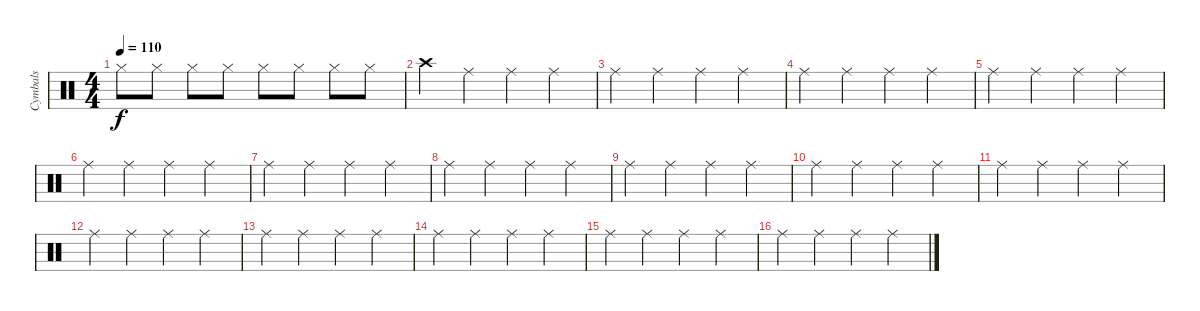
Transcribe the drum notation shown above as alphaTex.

\track ("Cymbals" "Cymbals") {instrument percussion}
\staff {score}
\articulation defaults
\ts (4 4)
\tempo 110
\clef neutral
\ks c "Hi-Hat (closed)".8{dy f} "Hi-Hat (closed)".8 "Hi-Hat (closed)".8 "Hi-Hat (closed)".8 "Hi-Hat (closed)".8 "Hi-Hat (closed)".8 "Hi-Hat (closed)".8 "Hi-Hat (closed)".8
|
"Crash high (hit)".4 "Ride (middle)".4 "Ride (middle)".4 "Ride (middle)".4 |
"Ride (middle)".4 "Ride (middle)".4 "Ride (middle)".4 "Ride (middle)".4 |
"Ride (middle)".4 "Ride (middle)".4 "Ride (middle)".4 "Ride (middle)".4 |
"Ride (middle)".4 "Ride (middle)".4 "Ride (middle)".4 "Ride (middle)".4 |
"Ride (middle)".4 "Ride (middle)".4 "Ride (middle)".4 "Ride (middle)".4 |
"Ride (middle)".4 "Ride (middle)".4 "Ride (middle)".4 "Ride (middle)".4 |
"Ride (middle)".4 "Ride (middle)".4 "Ride (middle)".4 "Ride (middle)".4 |
"Ride (middle)".4 "Ride (middle)".4 "Ride (middle)".4 "Ride (middle)".4 |
"Ride (middle)".4 "Ride (middle)".4 "Ride (middle)".4 "Ride (middle)".4 |
"Ride (middle)".4 "Ride (middle)".4 "Ride (middle)".4 "Ride (middle)".4 |
"Ride (middle)".4 "Ride (middle)".4 "Ride (middle)".4 "Ride (middle)".4 |
"Ride (middle)".4 "Ride (middle)".4 "Ride (middle)".4 "Ride (middle)".4 |
"Ride (middle)".4 "Ride (middle)".4 "Ride (middle)".4 "Ride (middle)".4 |
"Ride (middle)".4 "Ride (middle)".4 "Ride (middle)".4 "Ride (middle)".4 |
"Ride (middle)".4 "Ride (middle)".4 "Ride (middle)".4 "Ride (middle)".4
